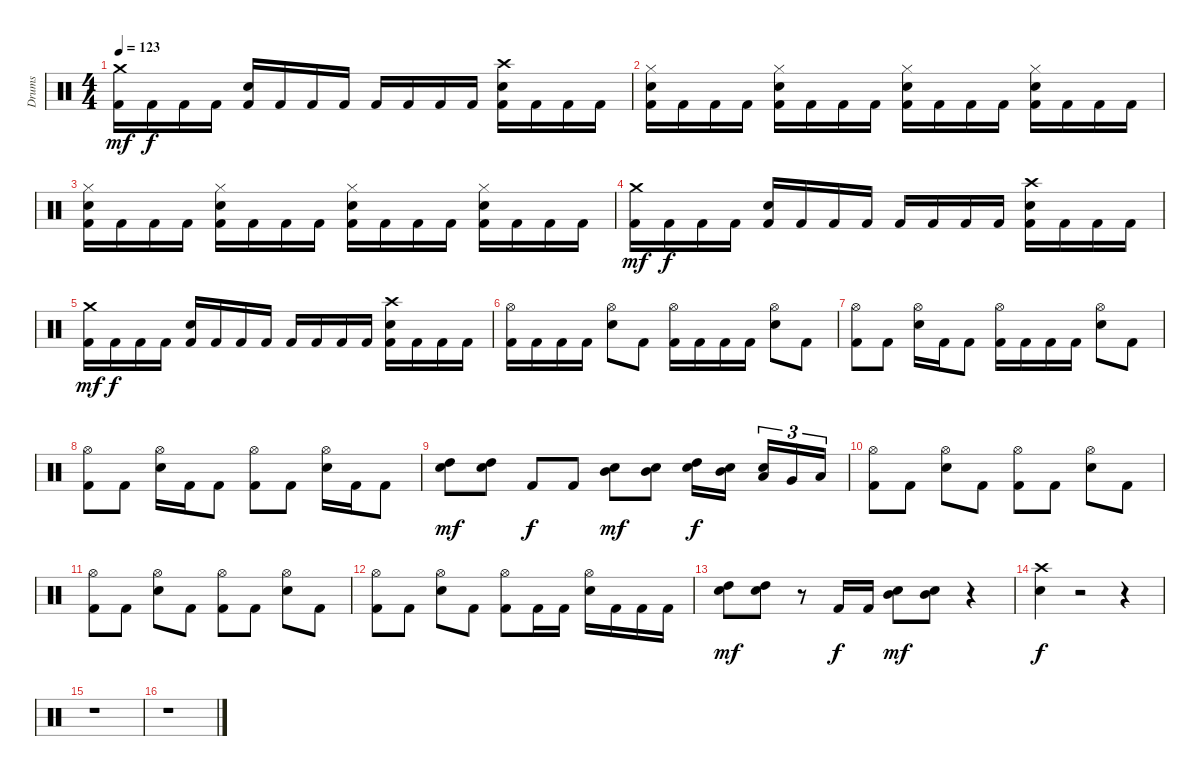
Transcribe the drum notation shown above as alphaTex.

\track ("Drums" "Drums") {instrument percussion}
\staff {score}
\articulation defaults
\ts (4 4)
\tempo 123
\clef neutral
\ks c
("Kick (hit) 2" "Crash medium (hit)").16{dy mf} "Kick (hit) 2".16{dy f} "Kick (hit) 2".16 "Kick (hit) 2".16 ("Kick (hit) 2" "Snare (hit) 2").16 "Kick (hit) 2".16 "Kick (hit) 2".16 "Kick (hit) 2".16 "Kick (hit) 2".16 "Kick (hit) 2".16 "Kick (hit) 2".16 "Kick (hit) 2".16 ("Kick (hit) 2" "Snare (hit) 2" "Crash high (hit)").16 "Kick (hit) 2".16 "Kick (hit) 2".16 "Kick (hit) 2".16 |
("Kick (hit) 2" "Snare (hit) 2" "Hi-Hat (closed)").16 "Kick (hit) 2".16 "Kick (hit) 2".16 "Kick (hit) 2".16 ("Kick (hit) 2" "Snare (hit) 2" "Hi-Hat (closed)").16 "Kick (hit) 2".16 "Kick (hit) 2".16 "Kick (hit) 2".16 ("Kick (hit) 2" "Snare (hit) 2" "Hi-Hat (closed)").16 "Kick (hit) 2".16 "Kick (hit) 2".16 "Kick (hit) 2".16 ("Kick (hit) 2" "Snare (hit) 2" "Hi-Hat (closed)").16 "Kick (hit) 2".16 "Kick (hit) 2".16 "Kick (hit) 2".16 |
("Kick (hit) 2" "Snare (hit) 2" "Hi-Hat (closed)").16 "Kick (hit) 2".16 "Kick (hit) 2".16 "Kick (hit) 2".16 ("Kick (hit) 2" "Snare (hit) 2" "Hi-Hat (closed)").16 "Kick (hit) 2".16 "Kick (hit) 2".16 "Kick (hit) 2".16 ("Kick (hit) 2" "Snare (hit) 2" "Hi-Hat (closed)").16 "Kick (hit) 2".16 "Kick (hit) 2".16 "Kick (hit) 2".16 ("Kick (hit) 2" "Snare (hit) 2" "Hi-Hat (closed)").16 "Kick (hit) 2".16 "Kick (hit) 2".16 "Kick (hit) 2".16 |
("Kick (hit) 2" "Crash medium (hit)").16{dy mf} "Kick (hit) 2".16{dy f} "Kick (hit) 2".16 "Kick (hit) 2".16 ("Kick (hit) 2" "Snare (hit) 2").16 "Kick (hit) 2".16 "Kick (hit) 2".16 "Kick (hit) 2".16 "Kick (hit) 2".16 "Kick (hit) 2".16 "Kick (hit) 2".16 "Kick (hit) 2".16 ("Kick (hit) 2" "Snare (hit) 2" "Crash high (hit)").16 "Kick (hit) 2".16 "Kick (hit) 2".16 "Kick (hit) 2".16 |
("Kick (hit) 2" "Crash medium (hit)").16{dy mf} "Kick (hit) 2".16{dy f} "Kick (hit) 2".16 "Kick (hit) 2".16 ("Kick (hit) 2" "Snare (hit) 2").16 "Kick (hit) 2".16 "Kick (hit) 2".16 "Kick (hit) 2".16 "Kick (hit) 2".16 "Kick (hit) 2".16 "Kick (hit) 2".16 "Kick (hit) 2".16 ("Kick (hit) 2" "Snare (hit) 2" "Crash high (hit)").16 "Kick (hit) 2".16 "Kick (hit) 2".16 "Kick (hit) 2".16 |
("Kick (hit) 2" "Hi-Hat (open)").16 "Kick (hit) 2".16 "Kick (hit) 2".16 "Kick (hit) 2".16 ("Snare (hit) 2" "Hi-Hat (open)").8 "Kick (hit) 2".8 ("Kick (hit) 2" "Hi-Hat (open)").16 "Kick (hit) 2".16 "Kick (hit) 2".16 "Kick (hit) 2".16 ("Snare (hit) 2" "Hi-Hat (open)").8 "Kick (hit) 2".8 |
("Kick (hit) 2" "Hi-Hat (open)").8 "Kick (hit) 2".8 ("Snare (hit) 2" "Hi-Hat (open)").16 "Kick (hit) 2".16 "Kick (hit) 2".8 ("Kick (hit) 2" "Hi-Hat (open)").16 "Kick (hit) 2".16 "Kick (hit) 2".16 "Kick (hit) 2".16 ("Snare (hit) 2" "Hi-Hat (open)").8 "Kick (hit) 2".8 |
("Kick (hit) 2" "Hi-Hat (open)").8 "Kick (hit) 2".8 ("Snare (hit) 2" "Hi-Hat (open)").16 "Kick (hit) 2".16 "Kick (hit) 2".8 ("Kick (hit) 2" "Hi-Hat (open)").8 "Kick (hit) 2".8 ("Snare (hit) 2" "Hi-Hat (open)").16 "Kick (hit) 2".16 "Kick (hit) 2".8 |
("Snare (hit) 2" "High Tom (hit)").8{dy mf} ("Snare (hit) 2" "High Tom (hit)").8 "Kick (hit) 2".8{dy f} "Kick (hit) 2".8 ("Snare (hit) 2" "Mid Tom (hit)").8{dy mf} ("Snare (hit) 2" "Mid Tom (hit)").8 ("Snare (hit) 2" "High Tom (hit)").16{dy f} ("Snare (hit) 2" "Mid Tom (hit)").16 ("Snare (hit) 2" "Low Tom (hit)").16{tu (3 2)} "Very Low Tom (hit)".16{tu (3 2)} "Low Floor Tom (hit)".16{tu (3 2)} |
("Kick (hit) 2" "Hi-Hat (open)").8 "Kick (hit) 2".8 ("Snare (hit) 2" "Hi-Hat (open)").8 "Kick (hit) 2".8 ("Kick (hit) 2" "Hi-Hat (open)").8 "Kick (hit) 2".8 ("Snare (hit) 2" "Hi-Hat (open)").8 "Kick (hit) 2".8 |
("Kick (hit) 2" "Hi-Hat (open)").8 "Kick (hit) 2".8 ("Snare (hit) 2" "Hi-Hat (open)").8 "Kick (hit) 2".8 ("Kick (hit) 2" "Hi-Hat (open)").8 "Kick (hit) 2".8 ("Snare (hit) 2" "Hi-Hat (open)").8 "Kick (hit) 2".8 |
("Kick (hit) 2" "Hi-Hat (open)").8 "Kick (hit) 2".8 ("Snare (hit) 2" "Hi-Hat (open)").8 "Kick (hit) 2".8 ("Kick (hit) 2" "Hi-Hat (open)").8 "Kick (hit) 2".16 "Kick (hit) 2".16 ("Snare (hit) 2" "Hi-Hat (open)").16 "Kick (hit) 2".16 "Kick (hit) 2".16 "Kick (hit) 2".16 |
("Snare (hit) 2" "High Tom (hit)").8{dy mf} ("Snare (hit) 2" "High Tom (hit)").8 r.8 "Kick (hit) 2".16{dy f} "Kick (hit) 2".16 ("Snare (hit) 2" "Mid Tom (hit)").8{dy mf} ("Snare (hit) 2" "Mid Tom (hit)").8 r.4 |
("Snare (hit) 2" "Crash high (hit)").4{dy f} r.2 r.4 |
r.1 |
r.1
